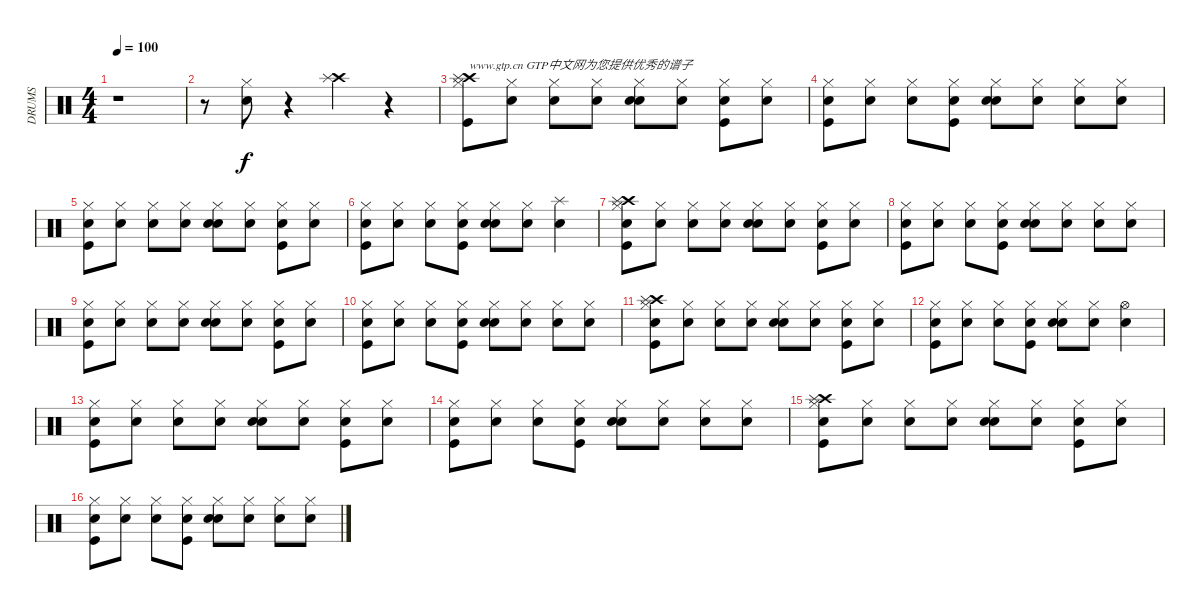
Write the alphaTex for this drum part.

\track ("DRUMS" "DRUMS") {instrument percussion}
\staff {score}
\articulation defaults
\ts (4 4)
\tempo 100
\clef neutral
\ks c
r.1{dy f} |
r.8 ("Snare (hit) 2" "Hi-Hat (closed)").8 r.4 ("Crash high (hit)" "Splash (hit)").4 r.4 |
("Kick (hit)" "Crash high (hit)" "Splash (hit)" "Hi-Hat (closed)").8{txt "www.gtp.cn GTP中文网为您提供优秀的谱子"} ("Snare (hit)" "Hi-Hat (closed)").8 ("Snare (hit)" "Hi-Hat (closed)").8 ("Snare (hit)" "Hi-Hat (closed)").8 ("Snare (hit)" "Snare (hit) 2" "Hi-Hat (closed)").8 ("Snare (hit)" "Hi-Hat (closed)").8 ("Snare (hit)" "Kick (hit)" "Hi-Hat (closed)").8 ("Snare (hit)" "Hi-Hat (closed)").8 |
("Snare (hit)" "Kick (hit)" "Hi-Hat (closed)").8 ("Snare (hit)" "Hi-Hat (closed)").8 ("Snare (hit)" "Hi-Hat (closed)").8 ("Snare (hit)" "Kick (hit)" "Hi-Hat (closed)").8 ("Snare (hit)" "Snare (hit) 2" "Hi-Hat (closed)").8 ("Snare (hit)" "Hi-Hat (closed)").8 ("Snare (hit)" "Hi-Hat (closed)").8 ("Snare (hit)" "Hi-Hat (closed)").8 |
("Snare (hit)" "Kick (hit)" "Hi-Hat (closed)").8 ("Snare (hit)" "Hi-Hat (closed)").8 ("Snare (hit)" "Hi-Hat (closed)").8 ("Snare (hit)" "Hi-Hat (closed)").8 ("Snare (hit)" "Snare (hit) 2" "Hi-Hat (closed)").8 ("Snare (hit)" "Hi-Hat (closed)").8 ("Snare (hit)" "Kick (hit)" "Hi-Hat (closed)").8 ("Snare (hit)" "Hi-Hat (closed)").8 |
("Snare (hit)" "Kick (hit)" "Hi-Hat (closed)").8 ("Snare (hit)" "Hi-Hat (closed)").8 ("Snare (hit)" "Hi-Hat (closed)").8 ("Snare (hit)" "Kick (hit)" "Hi-Hat (closed)").8 ("Snare (hit)" "Snare (hit) 2" "Hi-Hat (closed)").8 ("Snare (hit)" "Hi-Hat (closed)").8 ("Snare (hit)" "Splash (hit)").4 |
("Snare (hit)" "Kick (hit)" "Crash high (hit)" "Splash (hit)" "Hi-Hat (closed)").8 ("Snare (hit)" "Hi-Hat (closed)").8 ("Snare (hit)" "Hi-Hat (closed)").8 ("Snare (hit)" "Hi-Hat (closed)").8 ("Snare (hit)" "Snare (hit) 2" "Hi-Hat (closed)").8 ("Snare (hit)" "Hi-Hat (closed)").8 ("Snare (hit)" "Kick (hit)" "Hi-Hat (closed)").8 ("Snare (hit)" "Hi-Hat (closed)").8 |
("Snare (hit)" "Kick (hit)" "Hi-Hat (closed)").8 ("Snare (hit)" "Hi-Hat (closed)").8 ("Snare (hit)" "Hi-Hat (closed)").8 ("Snare (hit)" "Kick (hit)" "Hi-Hat (closed)").8 ("Snare (hit)" "Snare (hit) 2" "Hi-Hat (closed)").8 ("Snare (hit)" "Hi-Hat (closed)").8 ("Snare (hit)" "Hi-Hat (closed)").8 ("Snare (hit)" "Hi-Hat (closed)").8 |
("Snare (hit)" "Kick (hit)" "Hi-Hat (closed)").8 ("Snare (hit)" "Hi-Hat (closed)").8 ("Snare (hit)" "Hi-Hat (closed)").8 ("Snare (hit)" "Hi-Hat (closed)").8 ("Snare (hit)" "Snare (hit) 2" "Hi-Hat (closed)").8 ("Snare (hit)" "Hi-Hat (closed)").8 ("Snare (hit)" "Kick (hit)" "Hi-Hat (closed)").8 ("Snare (hit)" "Hi-Hat (closed)").8 |
("Snare (hit)" "Kick (hit)" "Hi-Hat (closed)").8 ("Snare (hit)" "Hi-Hat (closed)").8 ("Snare (hit)" "Hi-Hat (closed)").8 ("Snare (hit)" "Kick (hit)" "Hi-Hat (closed)").8 ("Snare (hit)" "Snare (hit) 2" "Hi-Hat (closed)").8 ("Snare (hit)" "Hi-Hat (closed)").8 ("Snare (hit)" "Hi-Hat (closed)").8 ("Snare (hit)" "Hi-Hat (closed)").8 |
("Snare (hit)" "Kick (hit)" "Crash high (hit)" "Splash (hit)" "Hi-Hat (closed)").8 ("Snare (hit)" "Hi-Hat (closed)").8 ("Snare (hit)" "Hi-Hat (closed)").8 ("Snare (hit)" "Hi-Hat (closed)").8 ("Snare (hit)" "Snare (hit) 2" "Hi-Hat (closed)").8 ("Snare (hit)" "Hi-Hat (closed)").8 ("Snare (hit)" "Kick (hit)" "Hi-Hat (closed)").8 ("Snare (hit)" "Hi-Hat (closed)").8 |
("Snare (hit)" "Kick (hit)" "Hi-Hat (closed)").8 ("Snare (hit)" "Hi-Hat (closed)").8 ("Snare (hit)" "Hi-Hat (closed)").8 ("Snare (hit)" "Kick (hit)" "Hi-Hat (closed)").8 ("Snare (hit)" "Snare (hit) 2" "Hi-Hat (closed)").8 ("Snare (hit)" "Hi-Hat (closed)").8 ("Snare (hit)" "Hi-Hat (open)").4 |
("Snare (hit)" "Kick (hit)" "Hi-Hat (closed)").8 ("Snare (hit)" "Hi-Hat (closed)").8 ("Snare (hit)" "Hi-Hat (closed)").8 ("Snare (hit)" "Hi-Hat (closed)").8 ("Snare (hit)" "Snare (hit) 2" "Hi-Hat (closed)").8 ("Snare (hit)" "Hi-Hat (closed)").8 ("Snare (hit)" "Kick (hit)" "Hi-Hat (closed)").8 ("Snare (hit)" "Hi-Hat (closed)").8 |
("Snare (hit)" "Kick (hit)" "Hi-Hat (closed)").8 ("Snare (hit)" "Hi-Hat (closed)").8 ("Snare (hit)" "Hi-Hat (closed)").8 ("Snare (hit)" "Kick (hit)" "Hi-Hat (closed)").8 ("Snare (hit)" "Snare (hit) 2" "Hi-Hat (closed)").8 ("Snare (hit)" "Hi-Hat (closed)").8 ("Snare (hit)" "Hi-Hat (closed)").8 ("Snare (hit)" "Hi-Hat (closed)").8 |
("Snare (hit)" "Kick (hit)" "Crash high (hit)" "Splash (hit)" "Hi-Hat (closed)").8 ("Snare (hit)" "Hi-Hat (closed)").8 ("Snare (hit)" "Hi-Hat (closed)").8 ("Snare (hit)" "Hi-Hat (closed)").8 ("Snare (hit)" "Snare (hit) 2" "Hi-Hat (closed)").8 ("Snare (hit)" "Hi-Hat (closed)").8 ("Snare (hit)" "Kick (hit)" "Hi-Hat (closed)").8 ("Snare (hit)" "Hi-Hat (closed)").8 |
("Snare (hit)" "Kick (hit)" "Hi-Hat (closed)").8 ("Snare (hit)" "Hi-Hat (closed)").8 ("Snare (hit)" "Hi-Hat (closed)").8 ("Snare (hit)" "Kick (hit)" "Hi-Hat (closed)").8 ("Snare (hit)" "Snare (hit) 2" "Hi-Hat (closed)").8 ("Snare (hit)" "Hi-Hat (closed)").8 ("Snare (hit)" "Hi-Hat (closed)").8 ("Snare (hit)" "Hi-Hat (closed)").8
